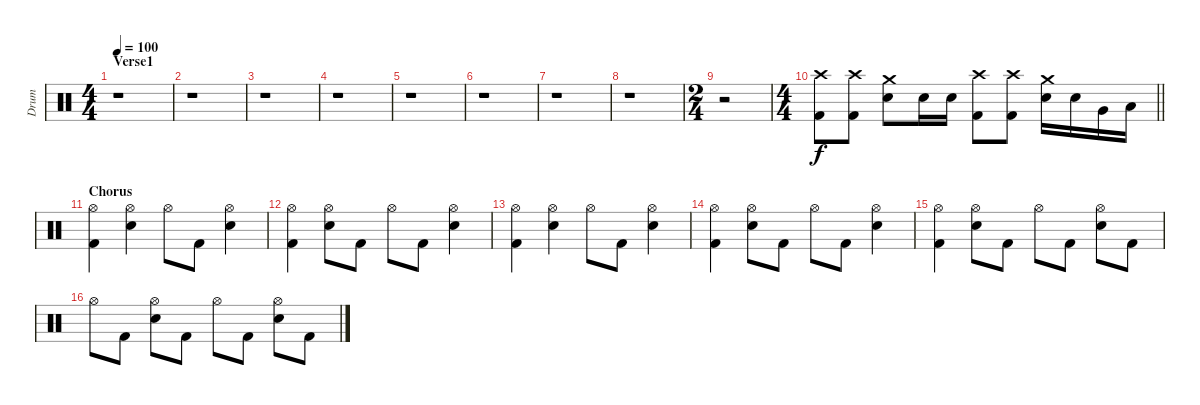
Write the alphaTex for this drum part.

\track ("Drum" "Drum") {instrument percussion}
\staff {score}
\articulation defaults
\ts (4 4)
\section ("" "Verse1")
\tempo 100
\clef neutral
\ks c
r.1{dy f} |
r.1 |
r.1 |
r.1 |
r.1 |
r.1 |
r.1 |
r.1 |
\ts (2 4)
r.2 |
\ts (4 4)
\barLineRight lightlight
("Crash high (hit)" "Kick (hit) 2").8 ("Crash high (hit)" "Kick (hit) 2").8 ("Crash medium (hit)" "Electric Snare (hit)").8 "Electric Snare (hit)".16 "Electric Snare (hit)".16 ("Crash high (hit)" "Kick (hit) 2").8 ("Crash high (hit)" "Kick (hit) 2").8 ("Crash medium (hit)" "Electric Snare (hit)").16 "Electric Snare (hit)".16 "Very Low Tom (hit)".16 "Low Floor Tom (hit)".16 |
\section ("" "Chorus")
("Kick (hit) 2" "Hi-Hat (open)").4 ("Electric Snare (hit)" "Hi-Hat (open)").4 "Hi-Hat (open)".8 "Kick (hit) 2".8 ("Electric Snare (hit)" "Hi-Hat (open)").4 |
("Hi-Hat (open)" "Kick (hit) 2").4 ("Hi-Hat (open)" "Electric Snare (hit)").8 "Kick (hit) 2".8 "Hi-Hat (open)".8 "Kick (hit) 2".8 ("Hi-Hat (open)" "Electric Snare (hit)").4 |
("Kick (hit) 2" "Hi-Hat (open)").4 ("Electric Snare (hit)" "Hi-Hat (open)").4 "Hi-Hat (open)".8 "Kick (hit) 2".8 ("Electric Snare (hit)" "Hi-Hat (open)").4 |
("Hi-Hat (open)" "Kick (hit) 2").4 ("Hi-Hat (open)" "Electric Snare (hit)").8 "Kick (hit) 2".8 "Hi-Hat (open)".8 "Kick (hit) 2".8 ("Hi-Hat (open)" "Electric Snare (hit)").4 |
("Kick (hit) 2" "Hi-Hat (open)").4 ("Electric Snare (hit)" "Hi-Hat (open)").8 "Kick (hit) 2".8 "Hi-Hat (open)".8 "Kick (hit) 2".8 ("Hi-Hat (open)" "Electric Snare (hit)").8 "Kick (hit) 2".8 |
"Hi-Hat (open)".8 "Kick (hit) 2".8 ("Electric Snare (hit)" "Hi-Hat (open)").8 "Kick (hit) 2".8 "Hi-Hat (open)".8 "Kick (hit) 2".8 ("Hi-Hat (open)" "Electric Snare (hit)").8 "Kick (hit) 2".8
